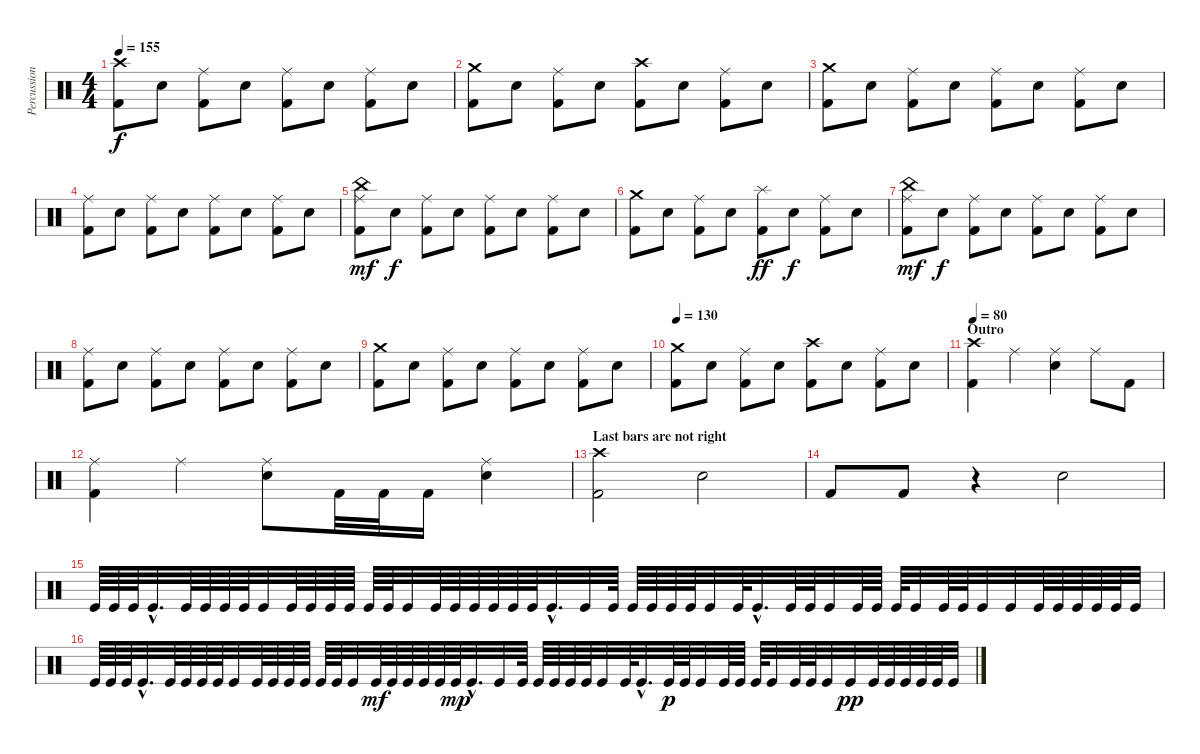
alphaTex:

\track ("Percussion" "Percussion") {instrument percussion}
\staff {score}
\articulation defaults
\ts (4 4)
\tempo 155
\clef neutral
\ks c
("Crash high (hit)" "Kick (hit) 2").8{dy f} "Electric Snare (hit)".8 ("Ride (middle)" "Kick (hit) 2").8 "Electric Snare (hit)".8 ("Ride (middle)" "Kick (hit) 2").8 "Electric Snare (hit)".8 ("Ride (middle)" "Kick (hit) 2").8 "Electric Snare (hit)".8 |
("Crash medium (hit)" "Kick (hit) 2").8 "Electric Snare (hit)".8 ("Ride (middle)" "Kick (hit) 2").8 "Electric Snare (hit)".8 ("Crash high (hit)" "Kick (hit) 2").8 "Electric Snare (hit)".8 ("Ride (middle)" "Kick (hit) 2").8 "Electric Snare (hit)".8 |
("Crash medium (hit)" "Kick (hit) 2").8 "Electric Snare (hit)".8 ("Ride (middle)" "Kick (hit) 2").8 "Electric Snare (hit)".8 ("Ride (middle)" "Kick (hit) 2").8 "Electric Snare (hit)".8 ("Ride (middle)" "Kick (hit) 2").8 "Electric Snare (hit)".8 |
("Ride (middle)" "Kick (hit) 2").8 "Electric Snare (hit)".8 ("Ride (middle)" "Kick (hit) 2").8 "Electric Snare (hit)".8 ("Ride (middle)" "Kick (hit) 2").8 "Electric Snare (hit)".8 ("Ride (middle)" "Kick (hit) 2").8 "Electric Snare (hit)".8 |
("China (hit)" "Ride (middle)" "Kick (hit) 2").8{dy mf} "Electric Snare (hit)".8{dy f} ("Ride (middle)" "Kick (hit) 2").8 "Electric Snare (hit)".8 ("Ride (middle)" "Kick (hit) 2").8 "Electric Snare (hit)".8 ("Ride (middle)" "Kick (hit) 2").8 "Electric Snare (hit)".8 |
("Crash medium (hit)" "Kick (hit) 2").8 "Electric Snare (hit)".8 ("Ride (middle)" "Kick (hit) 2").8 "Electric Snare (hit)".8 ("Splash (hit)" "Kick (hit) 2").8{dy ff} "Electric Snare (hit)".8{dy f} ("Ride (middle)" "Kick (hit) 2").8 "Electric Snare (hit)".8 |
("Ride (middle)" "China (hit)" "Kick (hit) 2").8{dy mf} "Electric Snare (hit)".8{dy f} ("Ride (middle)" "Kick (hit) 2").8 "Electric Snare (hit)".8 ("Ride (middle)" "Kick (hit) 2").8 "Electric Snare (hit)".8 ("Ride (middle)" "Kick (hit) 2").8 "Electric Snare (hit)".8 |
("Ride (middle)" "Kick (hit) 2").8 "Electric Snare (hit)".8 ("Ride (middle)" "Kick (hit) 2").8 "Electric Snare (hit)".8 ("Ride (middle)" "Kick (hit) 2").8 "Electric Snare (hit)".8 ("Ride (middle)" "Kick (hit) 2").8 "Electric Snare (hit)".8 |
("Crash medium (hit)" "Kick (hit) 2").8 "Electric Snare (hit)".8 ("Ride (middle)" "Kick (hit) 2").8 "Electric Snare (hit)".8 ("Ride (middle)" "Kick (hit) 2").8 "Electric Snare (hit)".8 ("Ride (middle)" "Kick (hit) 2").8 "Electric Snare (hit)".8 |
\tempo 130
("Crash medium (hit)" "Kick (hit) 2").8 "Electric Snare (hit)".8 ("Ride (middle)" "Kick (hit) 2").8 "Electric Snare (hit)".8 ("Crash high (hit)" "Kick (hit) 2").8 "Electric Snare (hit)".8 ("Ride (middle)" "Kick (hit) 2").8 "Electric Snare (hit)".8 |
\section ("" "Outro")
\tempo 80
("Crash high (hit)" "Kick (hit) 2").4 "Ride (middle)".4 ("Ride (middle)" "Electric Snare (hit)").4 "Ride (middle)".8 "Kick (hit) 2".8 |
("Ride (middle)" "Kick (hit) 2").4 "Ride (middle)".4 ("Ride (middle)" "Electric Snare (hit)").8 "Kick (hit) 2".32 "Kick (hit) 2".32 "Kick (hit) 2".16 ("Ride (middle)" "Electric Snare (hit)").4 |
\section ("" "Last bars are not right")
("Crash high (hit)" "Kick (hit) 2").2 "Electric Snare (hit)".2 |
"Kick (hit) 2".8 "Kick (hit) 2".8 r.4 "Electric Snare (hit)".2 |
"Kick (hit)".64 "Kick (hit)".64 "Kick (hit)".64 "Kick (hit)"{hac}.32{d} "Kick (hit)".64 "Kick (hit)".64 "Kick (hit)".64 "Kick (hit)".64 "Kick (hit)".32 "Kick (hit)".64 "Kick (hit)".64 "Kick (hit)".64 "Kick (hit)".64 "Kick (hit)".64 "Kick (hit)".64 "Kick (hit)".32 "Kick (hit)".64 "Kick (hit)".64 "Kick (hit)".64 "Kick (hit)".64 "Kick (hit)".64 "Kick (hit)".64 "Kick (hit)"{hac}.32{d} "Kick (hit)".32 "Kick (hit)".64 "Kick (hit)".64 "Kick (hit)".64 "Kick (hit)".64 "Kick (hit)".64 "Kick (hit)".32 "Kick (hit)".64 "Kick (hit)"{hac}.32{d} "Kick (hit)".64 "Kick (hit)".64 "Kick (hit)".32 "Kick (hit)".64 "Kick (hit)".64 "Kick (hit)".64 "Kick (hit)".32 "Kick (hit)".64 "Kick (hit)".64 "Kick (hit)".32 "Kick (hit)".32 "Kick (hit)".64 "Kick (hit)".64 "Kick (hit)".64 "Kick (hit)".64 "Kick (hit)".64 "Kick (hit)".32 |
"Kick (hit)".64 "Kick (hit)".64 "Kick (hit)".64 "Kick (hit)"{hac}.32{d} "Kick (hit)".64 "Kick (hit)".64 "Kick (hit)".64 "Kick (hit)".64 "Kick (hit)".32 "Kick (hit)".64 "Kick (hit)".64 "Kick (hit)".64 "Kick (hit)".64 "Kick (hit)".64 "Kick (hit)".64 "Kick (hit)".32 "Kick (hit)".64{dy mf} "Kick (hit)".64 "Kick (hit)".64 "Kick (hit)".64 "Kick (hit)".64 "Kick (hit)".64{dy mp} "Kick (hit)"{hac}.32{d} "Kick (hit)".32 "Kick (hit)".64 "Kick (hit)".64 "Kick (hit)".64 "Kick (hit)".64 "Kick (hit)".64 "Kick (hit)".32 "Kick (hit)".64 "Kick (hit)"{hac}.32{d} "Kick (hit)".64{dy p} "Kick (hit)".64 "Kick (hit)".32 "Kick (hit)".64 "Kick (hit)".64 "Kick (hit)".64 "Kick (hit)".32 "Kick (hit)".64 "Kick (hit)".64 "Kick (hit)".32 "Kick (hit)".32{dy pp} "Kick (hit)".64 "Kick (hit)".64 "Kick (hit)".64 "Kick (hit)".64 "Kick (hit)".64 "Kick (hit)".32
